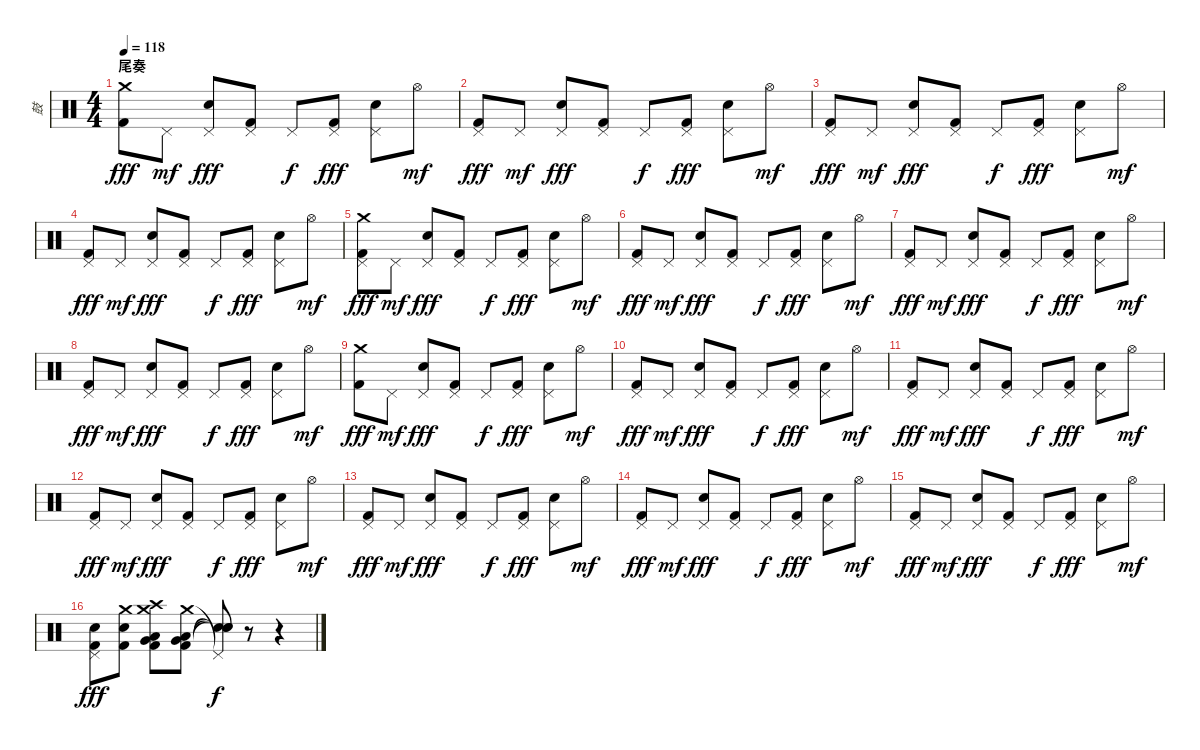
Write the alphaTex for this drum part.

\track ("鼓" "鼓") {instrument percussion}
\staff {score}
\articulation defaults
\ts (4 4)
\section ("" "尾奏")
\tempo 118
\clef neutral
\ks c
("Crash medium (hit)" "Kick (hit) 2").8{dy fff} "Pedal Hi-Hat (hit)".8{dy mf} ("Pedal Hi-Hat (hit)" "Snare (hit) 2").8{dy fff} ("Pedal Hi-Hat (hit)" "Kick (hit) 2").8 "Pedal Hi-Hat (hit)".8{dy f} ("Pedal Hi-Hat (hit)" "Kick (hit) 2").8{dy fff} ("Pedal Hi-Hat (hit)" "Snare (hit) 2").8 "Hi-Hat (open)".8{dy mf} |
("Pedal Hi-Hat (hit)" "Kick (hit) 2").8{dy fff} "Pedal Hi-Hat (hit)".8{dy mf} ("Pedal Hi-Hat (hit)" "Snare (hit) 2").8{dy fff} ("Pedal Hi-Hat (hit)" "Kick (hit) 2").8 "Pedal Hi-Hat (hit)".8{dy f} ("Pedal Hi-Hat (hit)" "Kick (hit) 2").8{dy fff} ("Pedal Hi-Hat (hit)" "Snare (hit) 2").8 "Hi-Hat (open)".8{dy mf} |
("Pedal Hi-Hat (hit)" "Kick (hit) 2").8{dy fff} "Pedal Hi-Hat (hit)".8{dy mf} ("Pedal Hi-Hat (hit)" "Snare (hit) 2").8{dy fff} ("Pedal Hi-Hat (hit)" "Kick (hit) 2").8 "Pedal Hi-Hat (hit)".8{dy f} ("Pedal Hi-Hat (hit)" "Kick (hit) 2").8{dy fff} ("Pedal Hi-Hat (hit)" "Snare (hit) 2").8 "Hi-Hat (open)".8{dy mf} |
("Pedal Hi-Hat (hit)" "Kick (hit) 2").8{dy fff} "Pedal Hi-Hat (hit)".8{dy mf} ("Pedal Hi-Hat (hit)" "Snare (hit) 2").8{dy fff} ("Pedal Hi-Hat (hit)" "Kick (hit) 2").8 "Pedal Hi-Hat (hit)".8{dy f} ("Pedal Hi-Hat (hit)" "Kick (hit) 2").8{dy fff} ("Pedal Hi-Hat (hit)" "Snare (hit) 2").8 "Hi-Hat (open)".8{dy mf} |
("Pedal Hi-Hat (hit)" "Crash medium (hit)" "Kick (hit) 2").8{dy fff} "Pedal Hi-Hat (hit)".8{dy mf} ("Pedal Hi-Hat (hit)" "Snare (hit) 2").8{dy fff} ("Pedal Hi-Hat (hit)" "Kick (hit) 2").8 "Pedal Hi-Hat (hit)".8{dy f} ("Pedal Hi-Hat (hit)" "Kick (hit) 2").8{dy fff} ("Pedal Hi-Hat (hit)" "Snare (hit) 2").8 "Hi-Hat (open)".8{dy mf} |
("Pedal Hi-Hat (hit)" "Kick (hit) 2").8{dy fff} "Pedal Hi-Hat (hit)".8{dy mf} ("Pedal Hi-Hat (hit)" "Snare (hit) 2").8{dy fff} ("Pedal Hi-Hat (hit)" "Kick (hit) 2").8 "Pedal Hi-Hat (hit)".8{dy f} ("Pedal Hi-Hat (hit)" "Kick (hit) 2").8{dy fff} ("Pedal Hi-Hat (hit)" "Snare (hit) 2").8 "Hi-Hat (open)".8{dy mf} |
("Pedal Hi-Hat (hit)" "Kick (hit) 2").8{dy fff} "Pedal Hi-Hat (hit)".8{dy mf} ("Pedal Hi-Hat (hit)" "Snare (hit) 2").8{dy fff} ("Pedal Hi-Hat (hit)" "Kick (hit) 2").8 "Pedal Hi-Hat (hit)".8{dy f} ("Pedal Hi-Hat (hit)" "Kick (hit) 2").8{dy fff} ("Pedal Hi-Hat (hit)" "Snare (hit) 2").8 "Hi-Hat (open)".8{dy mf} |
("Pedal Hi-Hat (hit)" "Kick (hit) 2").8{dy fff} "Pedal Hi-Hat (hit)".8{dy mf} ("Pedal Hi-Hat (hit)" "Snare (hit) 2").8{dy fff} ("Pedal Hi-Hat (hit)" "Kick (hit) 2").8 "Pedal Hi-Hat (hit)".8{dy f} ("Pedal Hi-Hat (hit)" "Kick (hit) 2").8{dy fff} ("Pedal Hi-Hat (hit)" "Snare (hit) 2").8 "Hi-Hat (open)".8{dy mf} |
("Crash medium (hit)" "Kick (hit) 2").8{dy fff} "Pedal Hi-Hat (hit)".8{dy mf} ("Pedal Hi-Hat (hit)" "Snare (hit) 2").8{dy fff} ("Pedal Hi-Hat (hit)" "Kick (hit) 2").8 "Pedal Hi-Hat (hit)".8{dy f} ("Pedal Hi-Hat (hit)" "Kick (hit) 2").8{dy fff} ("Pedal Hi-Hat (hit)" "Snare (hit) 2").8 "Hi-Hat (open)".8{dy mf} |
("Pedal Hi-Hat (hit)" "Kick (hit) 2").8{dy fff} "Pedal Hi-Hat (hit)".8{dy mf} ("Pedal Hi-Hat (hit)" "Snare (hit) 2").8{dy fff} ("Pedal Hi-Hat (hit)" "Kick (hit) 2").8 "Pedal Hi-Hat (hit)".8{dy f} ("Pedal Hi-Hat (hit)" "Kick (hit) 2").8{dy fff} ("Pedal Hi-Hat (hit)" "Snare (hit) 2").8 "Hi-Hat (open)".8{dy mf} |
("Pedal Hi-Hat (hit)" "Kick (hit) 2").8{dy fff} "Pedal Hi-Hat (hit)".8{dy mf} ("Pedal Hi-Hat (hit)" "Snare (hit) 2").8{dy fff} ("Pedal Hi-Hat (hit)" "Kick (hit) 2").8 "Pedal Hi-Hat (hit)".8{dy f} ("Pedal Hi-Hat (hit)" "Kick (hit) 2").8{dy fff} ("Pedal Hi-Hat (hit)" "Snare (hit) 2").8 "Hi-Hat (open)".8{dy mf} |
("Pedal Hi-Hat (hit)" "Kick (hit) 2").8{dy fff} "Pedal Hi-Hat (hit)".8{dy mf} ("Pedal Hi-Hat (hit)" "Snare (hit) 2").8{dy fff} ("Pedal Hi-Hat (hit)" "Kick (hit) 2").8 "Pedal Hi-Hat (hit)".8{dy f} ("Pedal Hi-Hat (hit)" "Kick (hit) 2").8{dy fff} ("Pedal Hi-Hat (hit)" "Snare (hit) 2").8 "Hi-Hat (open)".8{dy mf} |
("Pedal Hi-Hat (hit)" "Kick (hit) 2").8{dy fff} "Pedal Hi-Hat (hit)".8{dy mf} ("Pedal Hi-Hat (hit)" "Snare (hit) 2").8{dy fff} ("Pedal Hi-Hat (hit)" "Kick (hit) 2").8 "Pedal Hi-Hat (hit)".8{dy f} ("Pedal Hi-Hat (hit)" "Kick (hit) 2").8{dy fff} ("Pedal Hi-Hat (hit)" "Snare (hit) 2").8 "Hi-Hat (open)".8{dy mf} |
("Pedal Hi-Hat (hit)" "Kick (hit) 2").8{dy fff} "Pedal Hi-Hat (hit)".8{dy mf} ("Pedal Hi-Hat (hit)" "Snare (hit) 2").8{dy fff} ("Pedal Hi-Hat (hit)" "Kick (hit) 2").8 "Pedal Hi-Hat (hit)".8{dy f} ("Pedal Hi-Hat (hit)" "Kick (hit) 2").8{dy fff} ("Pedal Hi-Hat (hit)" "Snare (hit) 2").8 "Hi-Hat (open)".8{dy mf} |
("Pedal Hi-Hat (hit)" "Kick (hit) 2").8{dy fff} "Pedal Hi-Hat (hit)".8{dy mf} ("Pedal Hi-Hat (hit)" "Snare (hit) 2").8{dy fff} ("Pedal Hi-Hat (hit)" "Kick (hit) 2").8 "Pedal Hi-Hat (hit)".8{dy f} ("Pedal Hi-Hat (hit)" "Kick (hit) 2").8{dy fff} ("Pedal Hi-Hat (hit)" "Snare (hit) 2").8 "Hi-Hat (open)".8{dy mf} |
("Pedal Hi-Hat (hit)" "Snare (hit) 2" "Kick (hit) 2").8{dy fff} ("Crash medium (hit)" "Snare (hit) 2" "Kick (hit) 2").8 ("Crash medium (hit)" "Crash high (hit)" "Low Tom (hit)" "Very Low Tom (hit)" "Kick (hit) 2").8 ("Crash medium (hit)" "Low Tom (hit)" "Very Low Tom (hit)" "Kick (hit) 2").8 ("Pedal Hi-Hat (hit)"{t} "Snare (hit)"{t} "Snare (hit)"{t} "Snare (hit)"{t}).8{dy f} r.8 r.4
